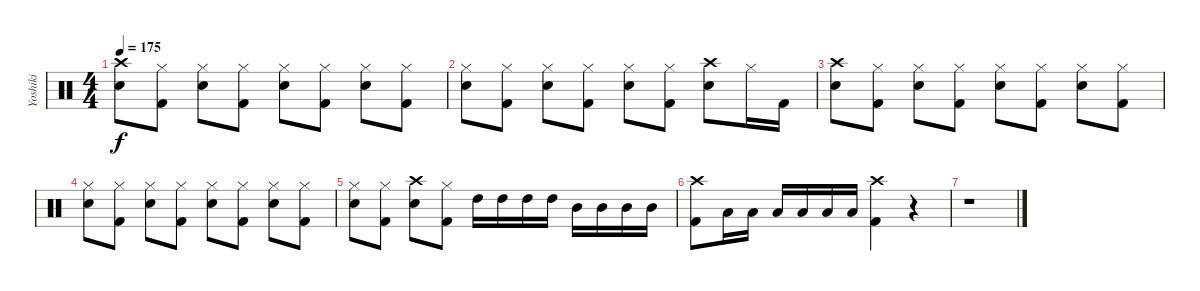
\track ("Yoshiki" "Yoshiki") {instrument percussion}
\staff {score}
\articulation defaults
\ts (4 4)
\tempo 175
\clef neutral
\ks c
("Crash high (hit)" "Electric Snare (hit)").8{dy f} ("Hi-Hat (closed)" "Kick (hit) 2").8 ("Hi-Hat (closed)" "Electric Snare (hit)").8 ("Hi-Hat (closed)" "Kick (hit) 2").8 ("Hi-Hat (closed)" "Electric Snare (hit)").8 ("Hi-Hat (closed)" "Kick (hit) 2").8 ("Hi-Hat (closed)" "Electric Snare (hit)").8 ("Hi-Hat (closed)" "Kick (hit) 2").8 |
("Hi-Hat (closed)" "Electric Snare (hit)").8 ("Hi-Hat (closed)" "Kick (hit) 2").8 ("Hi-Hat (closed)" "Electric Snare (hit)").8 ("Hi-Hat (closed)" "Kick (hit) 2").8 ("Hi-Hat (closed)" "Electric Snare (hit)").8 ("Hi-Hat (closed)" "Kick (hit) 2").8 ("Crash high (hit)" "Electric Snare (hit)").8 "Hi-Hat (closed)".16 "Kick (hit) 2".16 |
("Crash high (hit)" "Electric Snare (hit)").8 ("Hi-Hat (closed)" "Kick (hit) 2").8 ("Hi-Hat (closed)" "Electric Snare (hit)").8 ("Hi-Hat (closed)" "Kick (hit) 2").8 ("Hi-Hat (closed)" "Electric Snare (hit)").8 ("Hi-Hat (closed)" "Kick (hit) 2").8 ("Hi-Hat (closed)" "Electric Snare (hit)").8 ("Hi-Hat (closed)" "Kick (hit) 2").8 |
("Hi-Hat (closed)" "Electric Snare (hit)").8 ("Hi-Hat (closed)" "Kick (hit) 2").8 ("Hi-Hat (closed)" "Electric Snare (hit)").8 ("Hi-Hat (closed)" "Kick (hit) 2").8 ("Hi-Hat (closed)" "Electric Snare (hit)").8 ("Hi-Hat (closed)" "Kick (hit) 2").8 ("Hi-Hat (closed)" "Electric Snare (hit)").8 ("Hi-Hat (closed)" "Kick (hit) 2").8 |
("Hi-Hat (closed)" "Electric Snare (hit)").8 ("Hi-Hat (closed)" "Kick (hit) 2").8 ("Crash high (hit)" "Electric Snare (hit)").8 ("Hi-Hat (closed)" "Kick (hit) 2").8 "High Tom (hit)".16 "High Tom (hit)".16 "High Tom (hit)".16 "High Tom (hit)".16 "Mid Tom (hit)".16 "Mid Tom (hit)".16 "Mid Tom (hit)".16 "Mid Tom (hit)".16 |
("Crash high (hit)" "Kick (hit) 2").8 "Low Tom (hit)".16 "Low Tom (hit)".16 "Low Tom (hit)".16 "Low Tom (hit)".16 "Low Tom (hit)".16 "Low Tom (hit)".16 ("Crash high (hit)" "Kick (hit) 2").4 r.4 |
r.1
